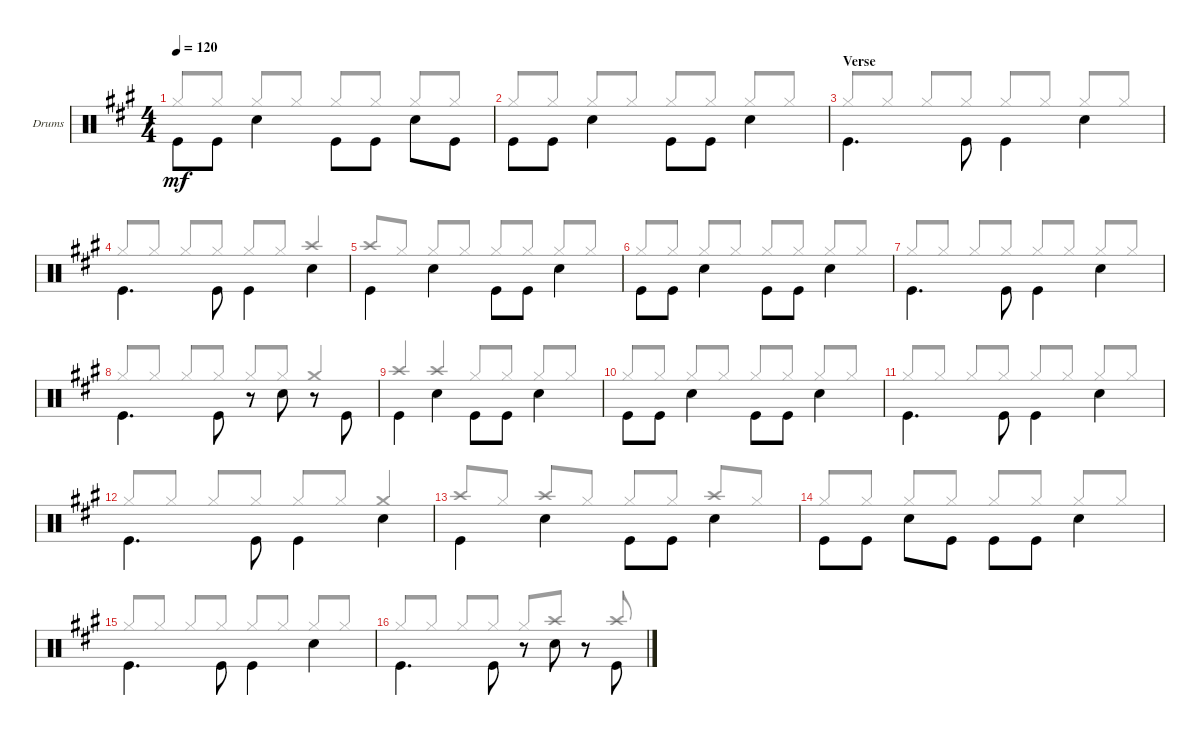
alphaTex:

\defaultSystemsLayout 4
\bracketExtendMode groupsimilarinstruments
\firstSystemTrackNameOrientation horizontal
\otherSystemsTrackNameOrientation horizontal
\track ("PETER CRISS" "Drums") {mute instrument percussion}
\staff {score}
\articulation defaults
\voice
\ts (4 4)
\tempo 120
\clef neutral
\ks a "Kick (hit)".8{dy mf beam invert} "Kick (hit)".8 "Snare (hit) 2".4{beam invert} "Kick (hit)".8{beam invert} "Kick (hit)".8 "Snare (hit) 2".8{beam invert} "Kick (hit)".8
|
"Kick (hit)".8{beam invert} "Kick (hit)".8 "Snare (hit) 2".4{beam invert} "Kick (hit)".8{beam invert} "Kick (hit)".8 "Snare (hit) 2".4{beam invert} |
\section ("" "Verse")
"Kick (hit)".4{d beam invert} "Kick (hit)".8{beam invert} "Kick (hit)".4{beam invert} "Snare (hit) 2".4{beam invert} |
"Kick (hit)".4{d beam invert} "Kick (hit)".8{beam invert} "Kick (hit)".4{beam invert} "Snare (hit) 2".4{beam invert} |
"Kick (hit)".4{beam invert} "Snare (hit) 2".4{beam invert} "Kick (hit)".8{beam invert} "Kick (hit)".8 "Snare (hit) 2".4{beam invert} |
"Kick (hit)".8{beam invert} "Kick (hit)".8 "Snare (hit) 2".4{beam invert} "Kick (hit)".8{beam invert} "Kick (hit)".8 "Snare (hit) 2".4{beam invert} |
"Kick (hit)".4{d beam invert} "Kick (hit)".8{beam invert} "Kick (hit)".4{beam invert} "Snare (hit) 2".4{beam invert} |
"Kick (hit)".4{d beam invert} "Kick (hit)".8{beam invert} r.8{beam invert} "Snare (hit) 2".8{beam invert} r.8 "Kick (hit)".8{beam invert} |
"Kick (hit)".4{beam invert} "Snare (hit) 2".4{beam invert} "Kick (hit)".8{beam invert} "Kick (hit)".8 "Snare (hit) 2".4{beam invert} |
"Kick (hit)".8{beam invert} "Kick (hit)".8 "Snare (hit) 2".4{beam invert} "Kick (hit)".8{beam invert} "Kick (hit)".8 "Snare (hit) 2".4{beam invert} |
"Kick (hit)".4{d beam invert} "Kick (hit)".8{beam invert} "Kick (hit)".4{beam invert} "Snare (hit) 2".4{beam invert} |
"Kick (hit)".4{d beam invert} "Kick (hit)".8{beam invert} "Kick (hit)".4{beam invert} "Snare (hit) 2".4{beam invert} |
"Kick (hit)".4{beam invert} "Snare (hit) 2".4{beam invert} "Kick (hit)".8{beam invert} "Kick (hit)".8 "Snare (hit) 2".4{beam invert} |
"Kick (hit)".8{beam invert} "Kick (hit)".8 "Snare (hit) 2".8{beam invert} "Kick (hit)".8 "Kick (hit)".8{beam invert} "Kick (hit)".8 "Snare (hit) 2".4{beam invert} |
"Kick (hit)".4{d beam invert} "Kick (hit)".8{beam invert} "Kick (hit)".4{beam invert} "Snare (hit) 2".4{beam invert} |
"Kick (hit)".4{d beam invert} "Kick (hit)".8{beam invert} r.8{beam invert} "Snare (hit) 2".8{beam invert} r.8 "Kick (hit)".8{beam invert}
\voice
\clef neutral
\ottava regular
\simile none
\ks a "Hi-Hat (closed)".8{dy mf beam invert} "Hi-Hat (closed)".8 "Hi-Hat (closed)".8{beam invert} "Hi-Hat (closed)".8 "Hi-Hat (closed)".8{beam invert} "Hi-Hat (closed)".8 "Hi-Hat (closed)".8{beam invert} "Hi-Hat (closed)".8
|
"Hi-Hat (closed)".8{beam invert} "Hi-Hat (closed)".8 "Hi-Hat (closed)".8{beam invert} "Hi-Hat (closed)".8 "Hi-Hat (closed)".8{beam invert} "Hi-Hat (closed)".8 "Hi-Hat (closed)".8{beam invert} "Hi-Hat (closed)".8 |
"Hi-Hat (closed)".8{beam invert} "Hi-Hat (closed)".8 "Hi-Hat (closed)".8{beam invert} "Hi-Hat (closed)".8 "Hi-Hat (closed)".8{beam invert} "Hi-Hat (closed)".8 "Hi-Hat (closed)".8{beam invert} "Hi-Hat (closed)".8 |
"Hi-Hat (closed)".8{beam invert} "Hi-Hat (closed)".8 "Hi-Hat (closed)".8{beam invert} "Hi-Hat (closed)".8 "Hi-Hat (closed)".8{beam invert} "Hi-Hat (closed)".8 "Crash high (hit)".4{beam invert} |
"Crash high (hit)".8 "Hi-Hat (closed)".8{beam invert} "Hi-Hat (closed)".8{beam invert} "Hi-Hat (closed)".8 "Hi-Hat (closed)".8{beam invert} "Hi-Hat (closed)".8 "Hi-Hat (closed)".8{beam invert} "Hi-Hat (closed)".8 |
"Hi-Hat (closed)".8{beam invert} "Hi-Hat (closed)".8 "Hi-Hat (closed)".8{beam invert} "Hi-Hat (closed)".8 "Hi-Hat (closed)".8{beam invert} "Hi-Hat (closed)".8 "Hi-Hat (closed)".8{beam invert} "Hi-Hat (closed)".8 |
"Hi-Hat (closed)".8{beam invert} "Hi-Hat (closed)".8 "Hi-Hat (closed)".8{beam invert} "Hi-Hat (closed)".8 "Hi-Hat (closed)".8{beam invert} "Hi-Hat (closed)".8 "Hi-Hat (closed)".8{beam invert} "Hi-Hat (closed)".8 |
"Hi-Hat (closed)".8{beam invert} "Hi-Hat (closed)".8 "Hi-Hat (closed)".8{beam invert} "Hi-Hat (closed)".8 "Hi-Hat (closed)".8{beam invert} "Hi-Hat (closed)".8 "Crash medium (hit)".4{beam invert} |
"Crash high (hit)".4{beam invert} "Crash high (hit)".4{beam invert} "Hi-Hat (closed)".8{beam invert} "Hi-Hat (closed)".8 "Hi-Hat (closed)".8{beam invert} "Hi-Hat (closed)".8 |
"Hi-Hat (closed)".8{beam invert} "Hi-Hat (closed)".8 "Hi-Hat (closed)".8{beam invert} "Hi-Hat (closed)".8 "Hi-Hat (closed)".8{beam invert} "Hi-Hat (closed)".8 "Hi-Hat (closed)".8{beam invert} "Hi-Hat (closed)".8 |
"Hi-Hat (closed)".8{beam invert} "Hi-Hat (closed)".8 "Hi-Hat (closed)".8{beam invert} "Hi-Hat (closed)".8 "Hi-Hat (closed)".8{beam invert} "Hi-Hat (closed)".8 "Hi-Hat (closed)".8{beam invert} "Hi-Hat (closed)".8 |
"Hi-Hat (closed)".8{beam invert} "Hi-Hat (closed)".8 "Hi-Hat (closed)".8{beam invert} "Hi-Hat (closed)".8 "Hi-Hat (closed)".8{beam invert} "Hi-Hat (closed)".8 "Crash medium (hit)".4{beam invert} |
"Crash high (hit)".8 "Hi-Hat (closed)".8{beam invert} "Crash high (hit)".8{beam invert} "Hi-Hat (closed)".8 "Hi-Hat (closed)".8{beam invert} "Hi-Hat (closed)".8 "Crash high (hit)".8{beam invert} "Hi-Hat (closed)".8 |
"Hi-Hat (closed)".8{beam invert} "Hi-Hat (closed)".8 "Hi-Hat (closed)".8{beam invert} "Hi-Hat (closed)".8 "Hi-Hat (closed)".8{beam invert} "Hi-Hat (closed)".8 "Hi-Hat (closed)".8{beam invert} "Hi-Hat (closed)".8 |
"Hi-Hat (closed)".8{beam invert} "Hi-Hat (closed)".8 "Hi-Hat (closed)".8{beam invert} "Hi-Hat (closed)".8 "Hi-Hat (closed)".8{beam invert} "Hi-Hat (closed)".8 "Hi-Hat (closed)".8{beam invert} "Hi-Hat (closed)".8 |
"Hi-Hat (closed)".8{beam invert} "Hi-Hat (closed)".8 "Hi-Hat (closed)".8{beam invert} "Hi-Hat (closed)".8 "Hi-Hat (closed)".8{beam invert} "Crash high (hit)".8 r.8{beam invert} "Crash high (hit)".8{beam invert}
